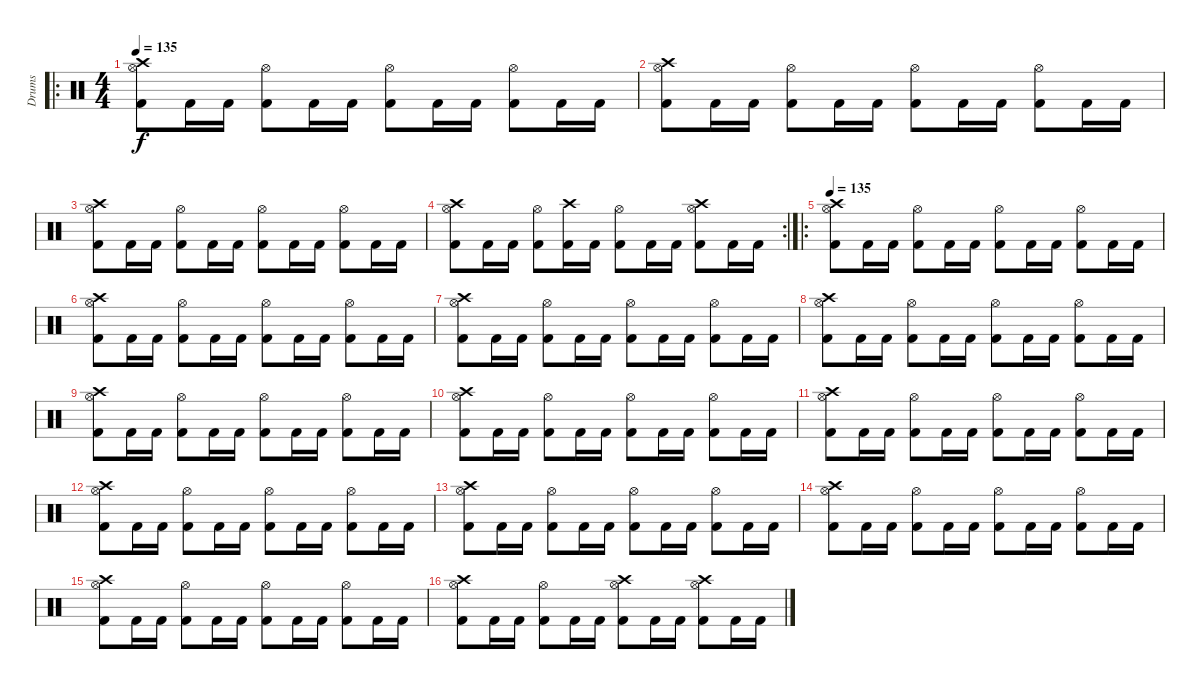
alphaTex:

\track ("Drums" "Drums") {instrument percussion}
\staff {score}
\articulation defaults
\ro
\ts (4 4)
\tempo 135
\clef neutral
\ks c
("Crash high (hit)" "Hi-Hat (open)" "Kick (hit) 2").8{dy f} "Kick (hit) 2".16 "Kick (hit) 2".16 ("Hi-Hat (open)" "Kick (hit) 2").8 "Kick (hit) 2".16 "Kick (hit) 2".16 ("Hi-Hat (open)" "Kick (hit) 2").8 "Kick (hit) 2".16 "Kick (hit) 2".16 ("Hi-Hat (open)" "Kick (hit) 2").8 "Kick (hit) 2".16 "Kick (hit) 2".16 |
("Crash high (hit)" "Hi-Hat (open)" "Kick (hit) 2").8 "Kick (hit) 2".16 "Kick (hit) 2".16 ("Hi-Hat (open)" "Kick (hit) 2").8 "Kick (hit) 2".16 "Kick (hit) 2".16 ("Hi-Hat (open)" "Kick (hit) 2").8 "Kick (hit) 2".16 "Kick (hit) 2".16 ("Hi-Hat (open)" "Kick (hit) 2").8 "Kick (hit) 2".16 "Kick (hit) 2".16 |
("Crash high (hit)" "Hi-Hat (open)" "Kick (hit) 2").8 "Kick (hit) 2".16 "Kick (hit) 2".16 ("Hi-Hat (open)" "Kick (hit) 2").8 "Kick (hit) 2".16 "Kick (hit) 2".16 ("Hi-Hat (open)" "Kick (hit) 2").8 "Kick (hit) 2".16 "Kick (hit) 2".16 ("Hi-Hat (open)" "Kick (hit) 2").8 "Kick (hit) 2".16 "Kick (hit) 2".16 |
\rc 2
("Crash high (hit)" "Hi-Hat (open)" "Kick (hit) 2").8 "Kick (hit) 2".16 "Kick (hit) 2".16 ("Hi-Hat (open)" "Kick (hit) 2").8 ("Crash high (hit)" "Kick (hit) 2").16 "Kick (hit) 2".16 ("Hi-Hat (open)" "Kick (hit) 2").8 "Kick (hit) 2".16 "Kick (hit) 2".16 ("Crash high (hit)" "Hi-Hat (open)" "Kick (hit) 2").8 "Kick (hit) 2".16 "Kick (hit) 2".16 |
\ro
\tempo 135
("Crash high (hit)" "Hi-Hat (open)" "Kick (hit) 2").8 "Kick (hit) 2".16 "Kick (hit) 2".16 ("Hi-Hat (open)" "Kick (hit) 2").8 "Kick (hit) 2".16 "Kick (hit) 2".16 ("Hi-Hat (open)" "Kick (hit) 2").8 "Kick (hit) 2".16 "Kick (hit) 2".16 ("Hi-Hat (open)" "Kick (hit) 2").8 "Kick (hit) 2".16 "Kick (hit) 2".16 |
("Crash high (hit)" "Hi-Hat (open)" "Kick (hit) 2").8 "Kick (hit) 2".16 "Kick (hit) 2".16 ("Hi-Hat (open)" "Kick (hit) 2").8 "Kick (hit) 2".16 "Kick (hit) 2".16 ("Hi-Hat (open)" "Kick (hit) 2").8 "Kick (hit) 2".16 "Kick (hit) 2".16 ("Hi-Hat (open)" "Kick (hit) 2").8 "Kick (hit) 2".16 "Kick (hit) 2".16 |
("Crash high (hit)" "Hi-Hat (open)" "Kick (hit) 2").8 "Kick (hit) 2".16 "Kick (hit) 2".16 ("Hi-Hat (open)" "Kick (hit) 2").8 "Kick (hit) 2".16 "Kick (hit) 2".16 ("Hi-Hat (open)" "Kick (hit) 2").8 "Kick (hit) 2".16 "Kick (hit) 2".16 ("Hi-Hat (open)" "Kick (hit) 2").8 "Kick (hit) 2".16 "Kick (hit) 2".16 |
("Crash high (hit)" "Hi-Hat (open)" "Kick (hit) 2").8 "Kick (hit) 2".16 "Kick (hit) 2".16 ("Hi-Hat (open)" "Kick (hit) 2").8 "Kick (hit) 2".16 "Kick (hit) 2".16 ("Hi-Hat (open)" "Kick (hit) 2").8 "Kick (hit) 2".16 "Kick (hit) 2".16 ("Hi-Hat (open)" "Kick (hit) 2").8 "Kick (hit) 2".16 "Kick (hit) 2".16 |
("Crash high (hit)" "Hi-Hat (open)" "Kick (hit) 2").8 "Kick (hit) 2".16 "Kick (hit) 2".16 ("Hi-Hat (open)" "Kick (hit) 2").8 "Kick (hit) 2".16 "Kick (hit) 2".16 ("Hi-Hat (open)" "Kick (hit) 2").8 "Kick (hit) 2".16 "Kick (hit) 2".16 ("Hi-Hat (open)" "Kick (hit) 2").8 "Kick (hit) 2".16 "Kick (hit) 2".16 |
("Crash high (hit)" "Hi-Hat (open)" "Kick (hit) 2").8 "Kick (hit) 2".16 "Kick (hit) 2".16 ("Hi-Hat (open)" "Kick (hit) 2").8 "Kick (hit) 2".16 "Kick (hit) 2".16 ("Hi-Hat (open)" "Kick (hit) 2").8 "Kick (hit) 2".16 "Kick (hit) 2".16 ("Hi-Hat (open)" "Kick (hit) 2").8 "Kick (hit) 2".16 "Kick (hit) 2".16 |
("Crash high (hit)" "Hi-Hat (open)" "Kick (hit) 2").8 "Kick (hit) 2".16 "Kick (hit) 2".16 ("Hi-Hat (open)" "Kick (hit) 2").8 "Kick (hit) 2".16 "Kick (hit) 2".16 ("Hi-Hat (open)" "Kick (hit) 2").8 "Kick (hit) 2".16 "Kick (hit) 2".16 ("Hi-Hat (open)" "Kick (hit) 2").8 "Kick (hit) 2".16 "Kick (hit) 2".16 |
("Crash high (hit)" "Hi-Hat (open)" "Kick (hit) 2").8 "Kick (hit) 2".16 "Kick (hit) 2".16 ("Hi-Hat (open)" "Kick (hit) 2").8 "Kick (hit) 2".16 "Kick (hit) 2".16 ("Hi-Hat (open)" "Kick (hit) 2").8 "Kick (hit) 2".16 "Kick (hit) 2".16 ("Hi-Hat (open)" "Kick (hit) 2").8 "Kick (hit) 2".16 "Kick (hit) 2".16 |
("Crash high (hit)" "Hi-Hat (open)" "Kick (hit) 2").8 "Kick (hit) 2".16 "Kick (hit) 2".16 ("Hi-Hat (open)" "Kick (hit) 2").8 "Kick (hit) 2".16 "Kick (hit) 2".16 ("Hi-Hat (open)" "Kick (hit) 2").8 "Kick (hit) 2".16 "Kick (hit) 2".16 ("Hi-Hat (open)" "Kick (hit) 2").8 "Kick (hit) 2".16 "Kick (hit) 2".16 |
("Crash high (hit)" "Hi-Hat (open)" "Kick (hit) 2").8 "Kick (hit) 2".16 "Kick (hit) 2".16 ("Hi-Hat (open)" "Kick (hit) 2").8 "Kick (hit) 2".16 "Kick (hit) 2".16 ("Hi-Hat (open)" "Kick (hit) 2").8 "Kick (hit) 2".16 "Kick (hit) 2".16 ("Hi-Hat (open)" "Kick (hit) 2").8 "Kick (hit) 2".16 "Kick (hit) 2".16 |
("Crash high (hit)" "Hi-Hat (open)" "Kick (hit) 2").8 "Kick (hit) 2".16 "Kick (hit) 2".16 ("Hi-Hat (open)" "Kick (hit) 2").8 "Kick (hit) 2".16 "Kick (hit) 2".16 ("Hi-Hat (open)" "Kick (hit) 2").8 "Kick (hit) 2".16 "Kick (hit) 2".16 ("Hi-Hat (open)" "Kick (hit) 2").8 "Kick (hit) 2".16 "Kick (hit) 2".16 |
("Crash high (hit)" "Hi-Hat (open)" "Kick (hit) 2").8 "Kick (hit) 2".16 "Kick (hit) 2".16 ("Hi-Hat (open)" "Kick (hit) 2").8 "Kick (hit) 2".16 "Kick (hit) 2".16 ("Crash high (hit)" "Hi-Hat (open)" "Kick (hit) 2").8 "Kick (hit) 2".16 "Kick (hit) 2".16 ("Crash high (hit)" "Hi-Hat (open)" "Kick (hit) 2").8 "Kick (hit) 2".16 "Kick (hit) 2".16
